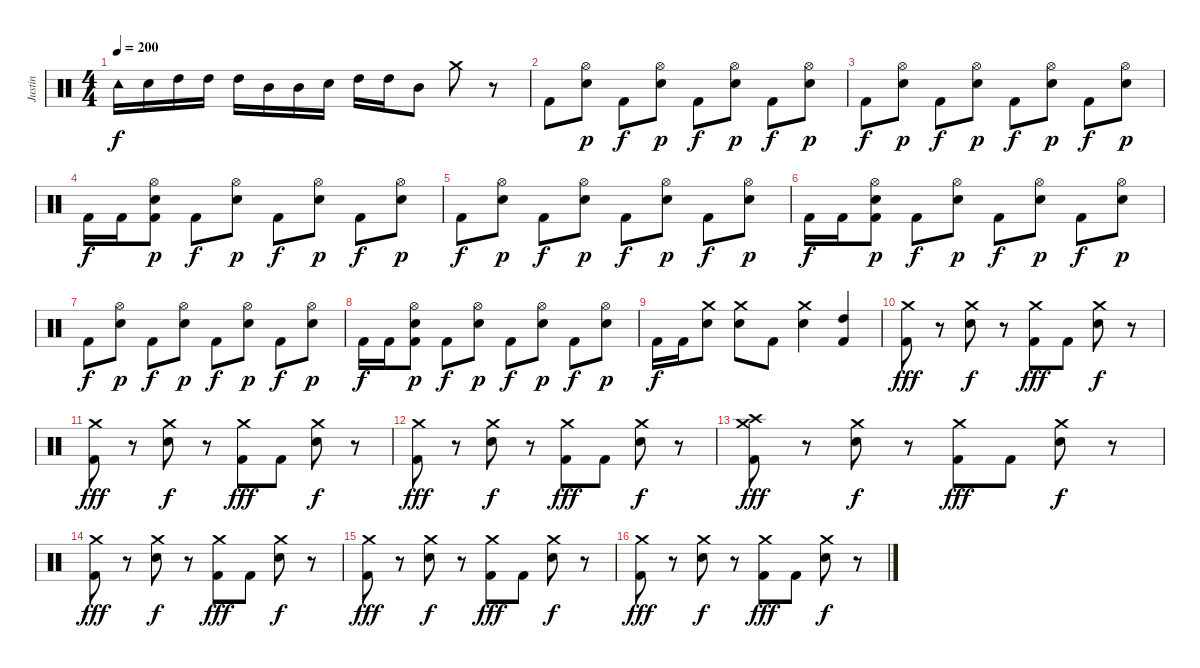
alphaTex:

\track ("Justin" "Justin") {instrument percussion}
\staff {score}
\articulation defaults
\ts (4 4)
\tempo 200
\clef neutral
\ks c "Tambourine (hit)".16{dy f} "Electric Snare (hit)".16 "High Tom (hit)".16 "High Tom (hit)".16 "High Tom (hit)".16 "Mid Tom (hit)".16 "Mid Tom (hit)".16 "Electric Snare (hit)".16 "High Tom (hit)".16 "High Tom (hit)".16 "Mid Tom (hit)".8 "Crash medium (hit)".8
r.8 |
"Kick (hit) 2".8 ("Hi-Hat (open)" "Electric Snare (hit)").8{dy p} "Kick (hit) 2".8{dy f} ("Hi-Hat (open)" "Electric Snare (hit)").8{dy p} "Kick (hit) 2".8{dy f} ("Hi-Hat (open)" "Electric Snare (hit)").8{dy p} "Kick (hit) 2".8{dy f} ("Hi-Hat (open)" "Electric Snare (hit)").8{dy p} |
"Kick (hit) 2".8{dy f} ("Hi-Hat (open)" "Electric Snare (hit)").8{dy p} "Kick (hit) 2".8{dy f} ("Hi-Hat (open)" "Electric Snare (hit)").8{dy p} "Kick (hit) 2".8{dy f} ("Hi-Hat (open)" "Electric Snare (hit)").8{dy p} "Kick (hit) 2".8{dy f} ("Hi-Hat (open)" "Electric Snare (hit)").8{dy p} |
"Kick (hit) 2".16{dy f} "Kick (hit) 2".16 ("Hi-Hat (open)" "Electric Snare (hit)" "Kick (hit) 2").8{dy p} "Kick (hit) 2".8{dy f} ("Hi-Hat (open)" "Electric Snare (hit)").8{dy p} "Kick (hit) 2".8{dy f} ("Hi-Hat (open)" "Electric Snare (hit)").8{dy p} "Kick (hit) 2".8{dy f} ("Hi-Hat (open)" "Electric Snare (hit)").8{dy p} |
"Kick (hit) 2".8{dy f} ("Hi-Hat (open)" "Electric Snare (hit)").8{dy p} "Kick (hit) 2".8{dy f} ("Hi-Hat (open)" "Electric Snare (hit)").8{dy p} "Kick (hit) 2".8{dy f} ("Hi-Hat (open)" "Electric Snare (hit)").8{dy p} "Kick (hit) 2".8{dy f} ("Hi-Hat (open)" "Electric Snare (hit)").8{dy p} |
"Kick (hit) 2".16{dy f} "Kick (hit) 2".16 ("Hi-Hat (open)" "Electric Snare (hit)" "Kick (hit) 2").8{dy p} "Kick (hit) 2".8{dy f} ("Hi-Hat (open)" "Electric Snare (hit)").8{dy p} "Kick (hit) 2".8{dy f} ("Hi-Hat (open)" "Electric Snare (hit)").8{dy p} "Kick (hit) 2".8{dy f} ("Hi-Hat (open)" "Electric Snare (hit)").8{dy p} |
"Kick (hit) 2".8{dy f} ("Hi-Hat (open)" "Electric Snare (hit)").8{dy p} "Kick (hit) 2".8{dy f} ("Hi-Hat (open)" "Electric Snare (hit)").8{dy p} "Kick (hit) 2".8{dy f} ("Hi-Hat (open)" "Electric Snare (hit)").8{dy p} "Kick (hit) 2".8{dy f} ("Hi-Hat (open)" "Electric Snare (hit)").8{dy p} |
"Kick (hit) 2".16{dy f} "Kick (hit) 2".16 ("Hi-Hat (open)" "Electric Snare (hit)" "Kick (hit) 2").8{dy p} "Kick (hit) 2".8{dy f} ("Hi-Hat (open)" "Electric Snare (hit)").8{dy p} "Kick (hit) 2".8{dy f} ("Hi-Hat (open)" "Electric Snare (hit)").8{dy p} "Kick (hit) 2".8{dy f} ("Hi-Hat (open)" "Electric Snare (hit)").8{dy p} |
"Kick (hit) 2".16{dy f} "Kick (hit) 2".16 ("Crash medium (hit)" "Electric Snare (hit)").8 ("Crash medium (hit)" "Electric Snare (hit)").8 "Kick (hit) 2".8 ("Crash medium (hit)" "Electric Snare (hit)").4 ("High Tom (hit)" "Kick (hit) 2").4 |
("Crash medium (hit)" "Kick (hit) 2").8{dy fff} r.8 ("Crash medium (hit)" "Electric Snare (hit)").8{dy f} r.8 ("Crash medium (hit)" "Kick (hit) 2").8{dy fff} "Kick (hit) 2".8 ("Crash medium (hit)" "Electric Snare (hit)").8{dy f} r.8 |
("Crash medium (hit)" "Kick (hit) 2").8{dy fff} r.8 ("Crash medium (hit)" "Electric Snare (hit)").8{dy f} r.8 ("Crash medium (hit)" "Kick (hit) 2").8{dy fff} "Kick (hit) 2".8 ("Crash medium (hit)" "Electric Snare (hit)").8{dy f} r.8 |
("Crash medium (hit)" "Kick (hit) 2").8{dy fff} r.8 ("Crash medium (hit)" "Electric Snare (hit)").8{dy f} r.8 ("Crash medium (hit)" "Kick (hit) 2").8{dy fff} "Kick (hit) 2".8 ("Crash medium (hit)" "Electric Snare (hit)").8{dy f} r.8 |
("Crash medium (hit)" "Crash high (hit)" "Kick (hit) 2").8{dy fff} r.8 ("Crash medium (hit)" "Electric Snare (hit)").8{dy f} r.8 ("Crash medium (hit)" "Kick (hit) 2").8{dy fff} "Kick (hit) 2".8 ("Crash medium (hit)" "Electric Snare (hit)").8{dy f} r.8 |
("Crash medium (hit)" "Kick (hit) 2").8{dy fff} r.8 ("Crash medium (hit)" "Electric Snare (hit)").8{dy f} r.8 ("Crash medium (hit)" "Kick (hit) 2").8{dy fff} "Kick (hit) 2".8 ("Crash medium (hit)" "Electric Snare (hit)").8{dy f} r.8 |
("Crash medium (hit)" "Kick (hit) 2").8{dy fff} r.8 ("Crash medium (hit)" "Electric Snare (hit)").8{dy f} r.8 ("Crash medium (hit)" "Kick (hit) 2").8{dy fff} "Kick (hit) 2".8 ("Crash medium (hit)" "Electric Snare (hit)").8{dy f} r.8 |
("Crash medium (hit)" "Kick (hit) 2").8{dy fff} r.8 ("Crash medium (hit)" "Electric Snare (hit)").8{dy f} r.8 ("Crash medium (hit)" "Kick (hit) 2").8{dy fff} "Kick (hit) 2".8 ("Crash medium (hit)" "Electric Snare (hit)").8{dy f} r.8
